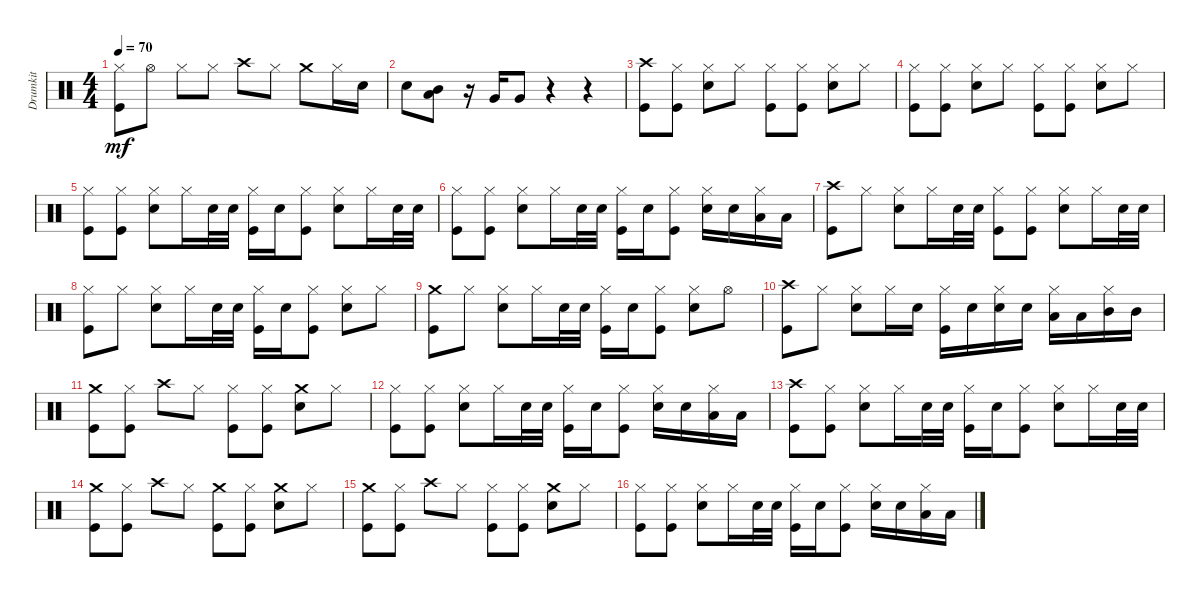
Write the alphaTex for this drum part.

\track ("Drumkit" "Drumkit") {instrument percussion}
\staff {score}
\articulation defaults
\ts (4 4)
\tempo 70
\clef neutral
\ks c
("Kick (hit)" "Hi-Hat (closed)").8{dy mf} "Hi-Hat (open)".8 "Hi-Hat (closed)".8 "Hi-Hat (closed)".8 "Crash high (hit)".8 "Hi-Hat (closed)".8 "Crash medium (hit)".8 "Hi-Hat (closed)".16 "Snare (hit) 2".16 |
"Snare (hit) 2".8 ("Low Tom (hit)" "Mid Tom (hit)").8 r.16 "Very Low Tom (hit)".16 "Very Low Tom (hit)".8 r.4 r.4 |
("Kick (hit)" "Crash high (hit)").8 ("Hi-Hat (closed)" "Kick (hit)").8 ("Hi-Hat (closed)" "Snare (hit) 2").8 "Hi-Hat (closed)".8 ("Hi-Hat (closed)" "Kick (hit)").8 ("Hi-Hat (closed)" "Kick (hit)").8 ("Hi-Hat (closed)" "Snare (hit) 2").8 "Hi-Hat (closed)".8 |
("Kick (hit)" "Hi-Hat (closed)").8 ("Hi-Hat (closed)" "Kick (hit)").8 ("Hi-Hat (closed)" "Snare (hit) 2").8 "Hi-Hat (closed)".8 ("Hi-Hat (closed)" "Kick (hit)").8 ("Hi-Hat (closed)" "Kick (hit)").8 ("Hi-Hat (closed)" "Snare (hit) 2").8 "Hi-Hat (closed)".8 |
("Kick (hit)" "Hi-Hat (closed)").8 ("Hi-Hat (closed)" "Kick (hit)").8 ("Hi-Hat (closed)" "Snare (hit) 2").8 "Hi-Hat (closed)".16 "Snare (hit) 2".32 "Snare (hit) 2".32 ("Hi-Hat (closed)" "Kick (hit)").16 "Snare (hit) 2".16 ("Kick (hit)" "Hi-Hat (closed)").8 ("Hi-Hat (closed)" "Snare (hit) 2").8 "Hi-Hat (closed)".16 "Snare (hit) 2".32 "Snare (hit) 2".32 |
("Kick (hit)" "Hi-Hat (closed)").8 ("Hi-Hat (closed)" "Kick (hit)").8 ("Hi-Hat (closed)" "Snare (hit) 2").8 "Hi-Hat (closed)".16 "Snare (hit) 2".32 "Snare (hit) 2".32 ("Hi-Hat (closed)" "Kick (hit)").16 "Snare (hit) 2".16 ("Kick (hit)" "Hi-Hat (closed)").8 ("Hi-Hat (closed)" "Snare (hit) 2").16 "Snare (hit) 2".16 ("Hi-Hat (closed)" "Low Tom (hit)").16 "Low Tom (hit)".16 |
("Kick (hit)" "Crash high (hit)").8 "Hi-Hat (closed)".8 ("Hi-Hat (closed)" "Snare (hit) 2").8 "Hi-Hat (closed)".16 "Snare (hit) 2".32 "Snare (hit) 2".32 ("Hi-Hat (closed)" "Kick (hit)").8 ("Kick (hit)" "Hi-Hat (closed)").8 ("Hi-Hat (closed)" "Snare (hit) 2").8 "Hi-Hat (closed)".16 "Snare (hit) 2".32 "Snare (hit) 2".32 |
("Kick (hit)" "Hi-Hat (closed)").8 "Hi-Hat (closed)".8 ("Hi-Hat (closed)" "Snare (hit) 2").8 "Hi-Hat (closed)".16 "Snare (hit) 2".32 "Snare (hit) 2".32 ("Hi-Hat (closed)" "Kick (hit)").16 "Snare (hit) 2".16 ("Kick (hit)" "Hi-Hat (closed)").8 ("Hi-Hat (closed)" "Snare (hit) 2").8 "Hi-Hat (closed)".8 |
("Kick (hit)" "Crash medium (hit)").8 "Hi-Hat (closed)".8 ("Hi-Hat (closed)" "Snare (hit) 2").8 "Hi-Hat (closed)".16 "Snare (hit) 2".32 "Snare (hit) 2".32 ("Hi-Hat (closed)" "Kick (hit)").16 "Snare (hit) 2".16 ("Kick (hit)" "Hi-Hat (closed)").8 ("Hi-Hat (closed)" "Snare (hit) 2").8 "Hi-Hat (open)".8 |
("Kick (hit)" "Crash high (hit)").8 "Hi-Hat (closed)".8 ("Hi-Hat (closed)" "Snare (hit) 2").8 "Hi-Hat (closed)".16 "Snare (hit) 2".16 ("Hi-Hat (closed)" "Kick (hit)").16 "Snare (hit) 2".16 ("Hi-Hat (closed)" "Snare (hit) 2").16 "Snare (hit) 2".16 ("Hi-Hat (closed)" "Low Tom (hit)").16 "Low Tom (hit)".16 ("Hi-Hat (closed)" "Mid Tom (hit)").16 "Mid Tom (hit)".16 |
("Kick (hit)" "Crash medium (hit)").8 ("Hi-Hat (closed)" "Kick (hit)").8 "Crash high (hit)".8 "Hi-Hat (closed)".8 ("Hi-Hat (closed)" "Kick (hit)").8 ("Hi-Hat (closed)" "Kick (hit)").8 ("Snare (hit) 2" "Crash medium (hit)").8 "Hi-Hat (closed)".8 |
("Kick (hit)" "Hi-Hat (closed)").8 ("Hi-Hat (closed)" "Kick (hit)").8 ("Hi-Hat (closed)" "Snare (hit) 2").8 "Hi-Hat (closed)".16 "Snare (hit) 2".32 "Snare (hit) 2".32 ("Hi-Hat (closed)" "Kick (hit)").16 "Snare (hit) 2".16 ("Kick (hit)" "Hi-Hat (closed)").8 ("Hi-Hat (closed)" "Snare (hit) 2").16 "Snare (hit) 2".16 ("Hi-Hat (closed)" "Low Tom (hit)").16 "Low Tom (hit)".16 |
("Kick (hit)" "Crash high (hit)").8 ("Hi-Hat (closed)" "Kick (hit)").8 ("Hi-Hat (closed)" "Snare (hit) 2").8 "Hi-Hat (closed)".16 "Snare (hit) 2".32 "Snare (hit) 2".32 ("Hi-Hat (closed)" "Kick (hit)").16 "Snare (hit) 2".16 ("Kick (hit)" "Hi-Hat (closed)").8 ("Hi-Hat (closed)" "Snare (hit) 2").8 "Hi-Hat (closed)".16 "Snare (hit) 2".32 "Snare (hit) 2".32 |
("Kick (hit)" "Crash medium (hit)").8 ("Hi-Hat (closed)" "Kick (hit)").8 "Crash high (hit)".8 "Hi-Hat (closed)".8 ("Kick (hit)" "Crash medium (hit)").8 ("Hi-Hat (closed)" "Kick (hit)").8 ("Snare (hit) 2" "Crash medium (hit)").8 "Hi-Hat (closed)".8 |
("Kick (hit)" "Crash medium (hit)").8 ("Hi-Hat (closed)" "Kick (hit)").8 "Crash high (hit)".8 "Hi-Hat (closed)".8 ("Hi-Hat (closed)" "Kick (hit)").8 ("Hi-Hat (closed)" "Kick (hit)").8 ("Snare (hit) 2" "Crash medium (hit)").8 "Hi-Hat (closed)".8 |
("Kick (hit)" "Hi-Hat (closed)").8 ("Hi-Hat (closed)" "Kick (hit)").8 ("Hi-Hat (closed)" "Snare (hit) 2").8 "Hi-Hat (closed)".16 "Snare (hit) 2".32 "Snare (hit) 2".32 ("Hi-Hat (closed)" "Kick (hit)").16 "Snare (hit) 2".16 ("Kick (hit)" "Hi-Hat (closed)").8 ("Hi-Hat (closed)" "Snare (hit) 2").16 "Snare (hit) 2".16 ("Hi-Hat (closed)" "Low Tom (hit)").16 "Low Tom (hit)".16
